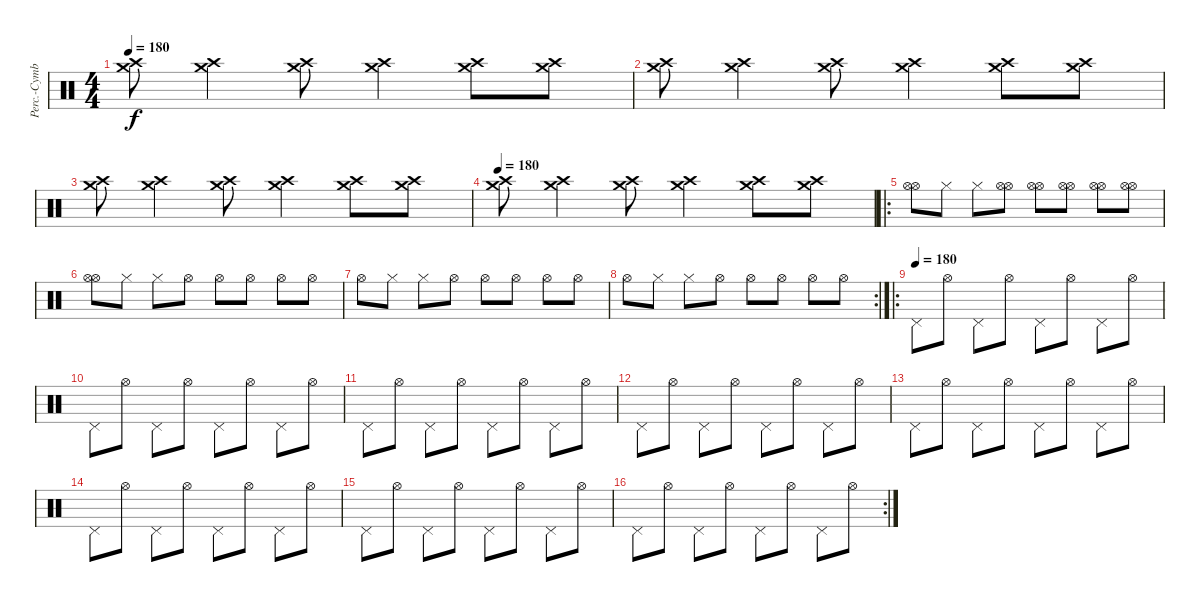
\track ("Perc.-Cymbals 1" "Perc.-Cymb") {instrument percussion}
\staff {score}
\articulation defaults
\ts (4 4)
\tempo 180
\clef neutral
\ks c
("Crash high (hit)" "Crash medium (hit)").8{dy f} ("Crash high (hit)" "Crash medium (hit)").4 ("Crash high (hit)" "Crash medium (hit)").8 ("Crash high (hit)" "Crash medium (hit)").4 ("Crash high (hit)" "Crash medium (hit)").8 ("Crash high (hit)" "Crash medium (hit)").8 |
("Crash high (hit)" "Crash medium (hit)").8 ("Crash high (hit)" "Crash medium (hit)").4 ("Crash high (hit)" "Crash medium (hit)").8 ("Crash high (hit)" "Crash medium (hit)").4 ("Crash high (hit)" "Crash medium (hit)").8 ("Crash high (hit)" "Crash medium (hit)").8 |
("Crash high (hit)" "Crash medium (hit)").8 ("Crash high (hit)" "Crash medium (hit)").4 ("Crash high (hit)" "Crash medium (hit)").8 ("Crash high (hit)" "Crash medium (hit)").4 ("Crash high (hit)" "Crash medium (hit)").8 ("Crash high (hit)" "Crash medium (hit)").8 |
\tempo 180
("Crash high (hit)" "Crash medium (hit)").8 ("Crash high (hit)" "Crash medium (hit)").4 ("Crash high (hit)" "Crash medium (hit)").8 ("Crash high (hit)" "Crash medium (hit)").4 ("Crash high (hit)" "Crash medium (hit)").8 ("Crash high (hit)" "Crash medium (hit)").8 |
\ro
("Hi-Hat (open)" "Hi-Hat (open)").8 "Hi-Hat (closed)".8 "Hi-Hat (closed)".8 ("Hi-Hat (open)" "Hi-Hat (open)").8 ("Hi-Hat (open)" "Hi-Hat (open)").8 ("Hi-Hat (open)" "Hi-Hat (open)").8 ("Hi-Hat (open)" "Hi-Hat (open)").8 ("Hi-Hat (open)" "Hi-Hat (open)").8 |
("Hi-Hat (open)" "Hi-Hat (open)").8 "Hi-Hat (closed)".8 "Hi-Hat (closed)".8 "Hi-Hat (open)".8 "Hi-Hat (open)".8 "Hi-Hat (open)".8 "Hi-Hat (open)".8 "Hi-Hat (open)".8 |
"Hi-Hat (open)".8 "Hi-Hat (closed)".8 "Hi-Hat (closed)".8 "Hi-Hat (open)".8 "Hi-Hat (open)".8 "Hi-Hat (open)".8 "Hi-Hat (open)".8 "Hi-Hat (open)".8 |
\rc 2 "Hi-Hat (open)".8 "Hi-Hat (closed)".8 "Hi-Hat (closed)".8 "Hi-Hat (open)".8 "Hi-Hat (open)".8 "Hi-Hat (open)".8 "Hi-Hat (open)".8 "Hi-Hat (open)".8
|
\ro
\tempo (180)
"Pedal Hi-Hat (hit)".8 "Hi-Hat (open)".8 "Pedal Hi-Hat (hit)".8 "Hi-Hat (open)".8 "Pedal Hi-Hat (hit)".8 "Hi-Hat (open)".8 "Pedal Hi-Hat (hit)".8 "Hi-Hat (open)".8 |
"Pedal Hi-Hat (hit)".8 "Hi-Hat (open)".8 "Pedal Hi-Hat (hit)".8 "Hi-Hat (open)".8 "Pedal Hi-Hat (hit)".8 "Hi-Hat (open)".8 "Pedal Hi-Hat (hit)".8 "Hi-Hat (open)".8 |
"Pedal Hi-Hat (hit)".8 "Hi-Hat (open)".8 "Pedal Hi-Hat (hit)".8 "Hi-Hat (open)".8 "Pedal Hi-Hat (hit)".8 "Hi-Hat (open)".8 "Pedal Hi-Hat (hit)".8 "Hi-Hat (open)".8 |
"Pedal Hi-Hat (hit)".8 "Hi-Hat (open)".8 "Pedal Hi-Hat (hit)".8 "Hi-Hat (open)".8 "Pedal Hi-Hat (hit)".8 "Hi-Hat (open)".8 "Pedal Hi-Hat (hit)".8 "Hi-Hat (open)".8 |
"Pedal Hi-Hat (hit)".8 "Hi-Hat (open)".8 "Pedal Hi-Hat (hit)".8 "Hi-Hat (open)".8 "Pedal Hi-Hat (hit)".8 "Hi-Hat (open)".8 "Pedal Hi-Hat (hit)".8 "Hi-Hat (open)".8 |
"Pedal Hi-Hat (hit)".8 "Hi-Hat (open)".8 "Pedal Hi-Hat (hit)".8 "Hi-Hat (open)".8 "Pedal Hi-Hat (hit)".8 "Hi-Hat (open)".8 "Pedal Hi-Hat (hit)".8 "Hi-Hat (open)".8 |
"Pedal Hi-Hat (hit)".8 "Hi-Hat (open)".8 "Pedal Hi-Hat (hit)".8 "Hi-Hat (open)".8 "Pedal Hi-Hat (hit)".8 "Hi-Hat (open)".8 "Pedal Hi-Hat (hit)".8 "Hi-Hat (open)".8 |
\rc 2 "Pedal Hi-Hat (hit)".8 "Hi-Hat (open)".8 "Pedal Hi-Hat (hit)".8 "Hi-Hat (open)".8 "Pedal Hi-Hat (hit)".8 "Hi-Hat (open)".8 "Pedal Hi-Hat (hit)".8 "Hi-Hat (open)".8
